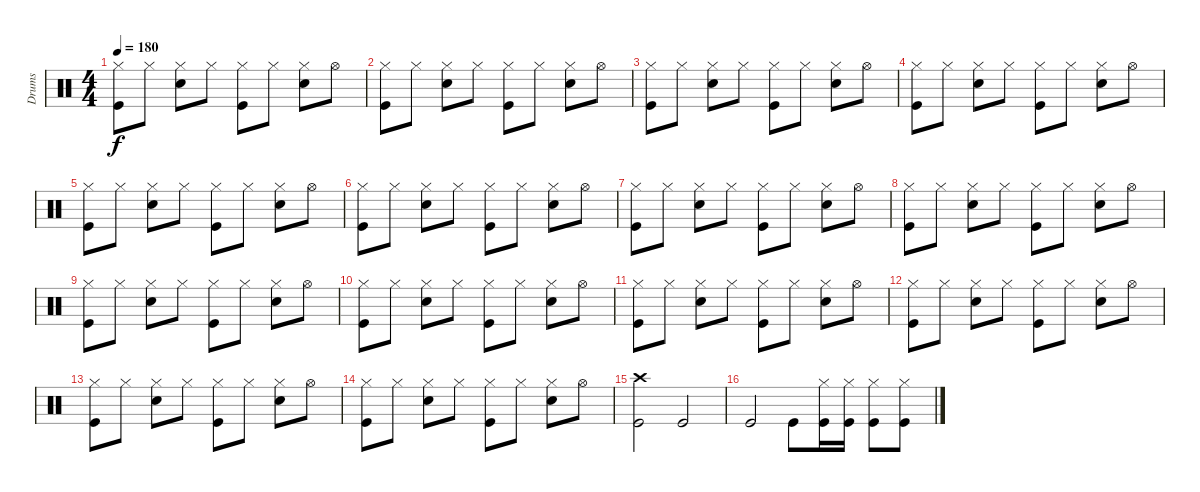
\track ("Drums" "Drums") {instrument percussion}
\staff {score}
\articulation defaults
\ts (4 4)
\tempo 180
\clef neutral
\ks c
("Kick (hit)" "Hi-Hat (closed)").8{dy f} "Hi-Hat (closed)".8 ("Snare (hit) 2" "Hi-Hat (closed)").8 "Hi-Hat (closed)".8 ("Kick (hit)" "Hi-Hat (closed)").8 "Hi-Hat (closed)".8 ("Snare (hit) 2" "Hi-Hat (closed)").8 "Hi-Hat (open)".8 |
("Kick (hit)" "Hi-Hat (closed)").8 "Hi-Hat (closed)".8 ("Snare (hit) 2" "Hi-Hat (closed)").8 "Hi-Hat (closed)".8 ("Kick (hit)" "Hi-Hat (closed)").8 "Hi-Hat (closed)".8 ("Snare (hit) 2" "Hi-Hat (closed)").8 "Hi-Hat (open)".8 |
("Kick (hit)" "Hi-Hat (closed)").8 "Hi-Hat (closed)".8 ("Snare (hit) 2" "Hi-Hat (closed)").8 "Hi-Hat (closed)".8 ("Kick (hit)" "Hi-Hat (closed)").8 "Hi-Hat (closed)".8 ("Snare (hit) 2" "Hi-Hat (closed)").8 "Hi-Hat (open)".8 |
("Kick (hit)" "Hi-Hat (closed)").8 "Hi-Hat (closed)".8 ("Snare (hit) 2" "Hi-Hat (closed)").8 "Hi-Hat (closed)".8 ("Kick (hit)" "Hi-Hat (closed)").8 "Hi-Hat (closed)".8 ("Snare (hit) 2" "Hi-Hat (closed)").8 "Hi-Hat (open)".8 |
("Kick (hit)" "Hi-Hat (closed)").8 "Hi-Hat (closed)".8 ("Snare (hit) 2" "Hi-Hat (closed)").8 "Hi-Hat (closed)".8 ("Kick (hit)" "Hi-Hat (closed)").8 "Hi-Hat (closed)".8 ("Snare (hit) 2" "Hi-Hat (closed)").8 "Hi-Hat (open)".8 |
("Kick (hit)" "Hi-Hat (closed)").8 "Hi-Hat (closed)".8 ("Snare (hit) 2" "Hi-Hat (closed)").8 "Hi-Hat (closed)".8 ("Kick (hit)" "Hi-Hat (closed)").8 "Hi-Hat (closed)".8 ("Snare (hit) 2" "Hi-Hat (closed)").8 "Hi-Hat (open)".8 |
("Kick (hit)" "Hi-Hat (closed)").8 "Hi-Hat (closed)".8 ("Snare (hit) 2" "Hi-Hat (closed)").8 "Hi-Hat (closed)".8 ("Kick (hit)" "Hi-Hat (closed)").8 "Hi-Hat (closed)".8 ("Snare (hit) 2" "Hi-Hat (closed)").8 "Hi-Hat (open)".8 |
("Kick (hit)" "Hi-Hat (closed)").8 "Hi-Hat (closed)".8 ("Snare (hit) 2" "Hi-Hat (closed)").8 "Hi-Hat (closed)".8 ("Kick (hit)" "Hi-Hat (closed)").8 "Hi-Hat (closed)".8 ("Snare (hit) 2" "Hi-Hat (closed)").8 "Hi-Hat (open)".8 |
("Kick (hit)" "Hi-Hat (closed)").8 "Hi-Hat (closed)".8 ("Snare (hit) 2" "Hi-Hat (closed)").8 "Hi-Hat (closed)".8 ("Kick (hit)" "Hi-Hat (closed)").8 "Hi-Hat (closed)".8 ("Snare (hit) 2" "Hi-Hat (closed)").8 "Hi-Hat (open)".8 |
("Kick (hit)" "Hi-Hat (closed)").8 "Hi-Hat (closed)".8 ("Snare (hit) 2" "Hi-Hat (closed)").8 "Hi-Hat (closed)".8 ("Kick (hit)" "Hi-Hat (closed)").8 "Hi-Hat (closed)".8 ("Snare (hit) 2" "Hi-Hat (closed)").8 "Hi-Hat (open)".8 |
("Kick (hit)" "Hi-Hat (closed)").8 "Hi-Hat (closed)".8 ("Snare (hit) 2" "Hi-Hat (closed)").8 "Hi-Hat (closed)".8 ("Kick (hit)" "Hi-Hat (closed)").8 "Hi-Hat (closed)".8 ("Snare (hit) 2" "Hi-Hat (closed)").8 "Hi-Hat (open)".8 |
("Kick (hit)" "Hi-Hat (closed)").8 "Hi-Hat (closed)".8 ("Snare (hit) 2" "Hi-Hat (closed)").8 "Hi-Hat (closed)".8 ("Kick (hit)" "Hi-Hat (closed)").8 "Hi-Hat (closed)".8 ("Snare (hit) 2" "Hi-Hat (closed)").8 "Hi-Hat (open)".8 |
("Kick (hit)" "Hi-Hat (closed)").8 "Hi-Hat (closed)".8 ("Snare (hit) 2" "Hi-Hat (closed)").8 "Hi-Hat (closed)".8 ("Kick (hit)" "Hi-Hat (closed)").8 "Hi-Hat (closed)".8 ("Snare (hit) 2" "Hi-Hat (closed)").8 "Hi-Hat (open)".8 |
("Kick (hit)" "Hi-Hat (closed)").8 "Hi-Hat (closed)".8 ("Snare (hit) 2" "Hi-Hat (closed)").8 "Hi-Hat (closed)".8 ("Kick (hit)" "Hi-Hat (closed)").8 "Hi-Hat (closed)".8 ("Snare (hit) 2" "Hi-Hat (closed)").8 "Hi-Hat (open)".8 |
("Kick (hit)" "Crash high (hit)").2 "Kick (hit)".2 |
"Kick (hit)".2 "Kick (hit)".8 ("Kick (hit)" "Hi-Hat (closed)").16 ("Kick (hit)" "Hi-Hat (closed)").16 ("Kick (hit)" "Hi-Hat (closed)").8 ("Kick (hit)" "Hi-Hat (closed)").8
